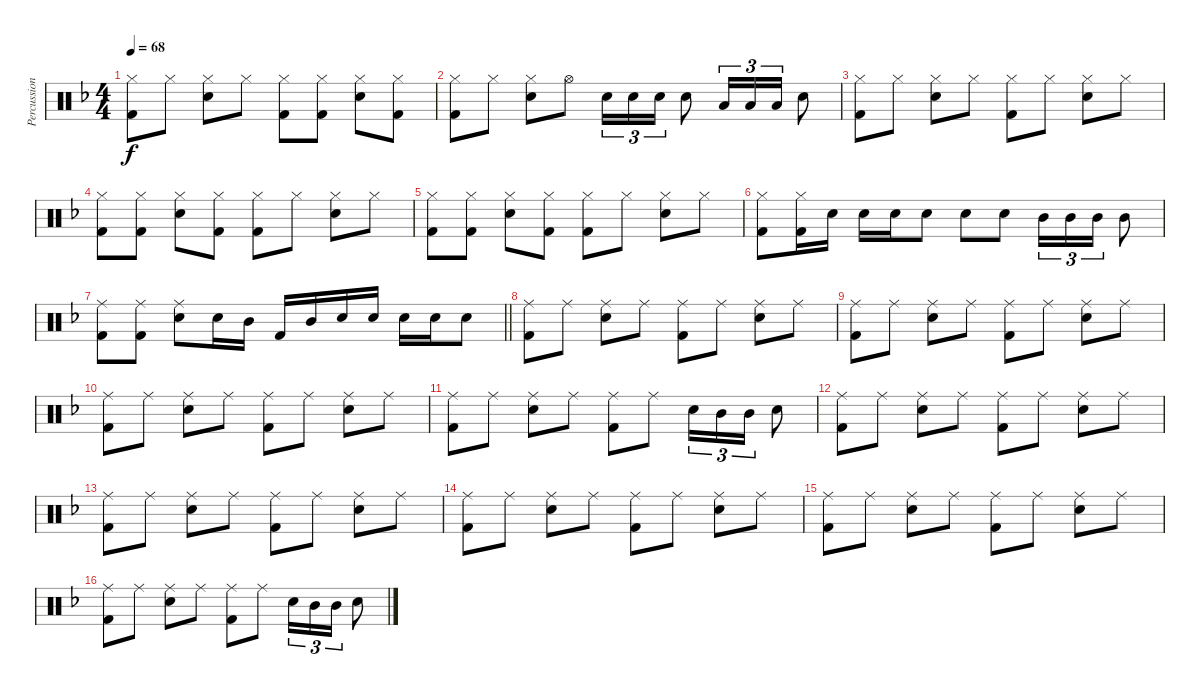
\track ("Percussion" "Percussion") {instrument percussion}
\staff {score}
\articulation defaults
\ts (4 4)
\tempo 68
\clef neutral
\ks f
("Hi-Hat (closed)" "Kick (hit) 2").8{dy f} "Hi-Hat (closed)".8 ("Hi-Hat (closed)" "Snare (hit) 2").8 "Hi-Hat (closed)".8 ("Hi-Hat (closed)" "Kick (hit) 2").8 ("Hi-Hat (closed)" "Kick (hit) 2").8 ("Hi-Hat (closed)" "Snare (hit) 2").8 ("Hi-Hat (closed)" "Kick (hit) 2").8 |
("Hi-Hat (closed)" "Kick (hit) 2").8 "Hi-Hat (closed)".8 ("Hi-Hat (closed)" "Snare (hit) 2").8 "Hi-Hat (open)".8 "Snare (hit) 2".16{tu (3 2)} "Snare (hit) 2".16{tu (3 2)} "Snare (hit) 2".16{tu (3 2)} "Snare (hit) 2".8 "Low Floor Tom (hit)".16{tu (3 2)} "Low Floor Tom (hit)".16{tu (3 2)} "Low Floor Tom (hit)".16{tu (3 2)} "Snare (hit) 2".8 |
("Hi-Hat (closed)" "Kick (hit) 2").8 "Hi-Hat (closed)".8 ("Hi-Hat (closed)" "Snare (hit) 2").8 "Hi-Hat (closed)".8 ("Hi-Hat (closed)" "Kick (hit) 2").8 "Hi-Hat (closed)".8 ("Hi-Hat (closed)" "Snare (hit) 2").8 "Hi-Hat (closed)".8 |
("Hi-Hat (closed)" "Kick (hit) 2").8 ("Hi-Hat (closed)" "Kick (hit) 2").8 ("Hi-Hat (closed)" "Snare (hit) 2").8 ("Hi-Hat (closed)" "Kick (hit) 2").8 ("Hi-Hat (closed)" "Kick (hit) 2").8 "Hi-Hat (closed)".8 ("Hi-Hat (closed)" "Snare (hit) 2").8 "Hi-Hat (closed)".8 |
("Hi-Hat (closed)" "Kick (hit) 2").8 ("Hi-Hat (closed)" "Kick (hit) 2").8 ("Hi-Hat (closed)" "Snare (hit) 2").8 ("Hi-Hat (closed)" "Kick (hit) 2").8 ("Hi-Hat (closed)" "Kick (hit) 2").8 "Hi-Hat (closed)".8 ("Hi-Hat (closed)" "Snare (hit) 2").8 "Hi-Hat (closed)".8 |
("Hi-Hat (closed)" "Kick (hit) 2").8 ("Hi-Hat (closed)" "Kick (hit) 2").16 "Snare (hit) 2".16 "Snare (hit) 2".16 "Snare (hit) 2".16 "Snare (hit) 2".8 "Snare (hit) 2".8 "Snare (hit) 2".8 "Mid Tom (hit)".16{tu (3 2)} "Mid Tom (hit)".16{tu (3 2)} "Mid Tom (hit)".16{tu (3 2)} "Mid Tom (hit)".8 |
\barLineRight lightlight
("Ride (middle)" "Kick (hit) 2").8 ("Ride (middle)" "Kick (hit) 2").8 ("Ride (middle)" "Snare (hit) 2").8 "Snare (hit) 2".16 "Mid Tom (hit)".16 "Kick (hit) 2".16 "Mid Tom (hit)".16 "Snare (hit) 2".16 "Snare (hit) 2".16 "Snare (hit) 2".16 "Snare (hit) 2".16 "Snare (hit) 2".8 |
("Ride (middle)" "Kick (hit) 2").8 "Ride (middle)".8 ("Ride (middle)" "Snare (hit) 2").8 "Ride (middle)".8 ("Ride (middle)" "Kick (hit) 2").8 "Ride (middle)".8 ("Ride (middle)" "Snare (hit) 2").8 "Ride (middle)".8 |
("Ride (middle)" "Kick (hit) 2").8 "Ride (middle)".8 ("Ride (middle)" "Snare (hit) 2").8 "Ride (middle)".8 ("Ride (middle)" "Kick (hit) 2").8 "Ride (middle)".8 ("Ride (middle)" "Snare (hit) 2").8 "Ride (middle)".8 |
("Ride (middle)" "Kick (hit) 2").8 "Ride (middle)".8 ("Ride (middle)" "Snare (hit) 2").8 "Ride (middle)".8 ("Ride (middle)" "Kick (hit) 2").8 "Ride (middle)".8 ("Ride (middle)" "Snare (hit) 2").8 "Ride (middle)".8 |
("Ride (middle)" "Kick (hit) 2").8 "Ride (middle)".8 ("Ride (middle)" "Snare (hit) 2").8 "Ride (middle)".8 ("Ride (middle)" "Kick (hit) 2").8 "Ride (middle)".8 "Snare (hit) 2".16{tu (3 2)} "Mid Tom (hit)".16{tu (3 2)} "Mid Tom (hit)".16{tu (3 2)} "Snare (hit) 2".8 |
("Ride (middle)" "Kick (hit) 2").8 "Ride (middle)".8 ("Ride (middle)" "Snare (hit) 2").8 "Ride (middle)".8 ("Ride (middle)" "Kick (hit) 2").8 "Ride (middle)".8 ("Ride (middle)" "Snare (hit) 2").8 "Ride (middle)".8 |
("Ride (middle)" "Kick (hit) 2").8 "Ride (middle)".8 ("Ride (middle)" "Snare (hit) 2").8 "Ride (middle)".8 ("Ride (middle)" "Kick (hit) 2").8 "Ride (middle)".8 ("Ride (middle)" "Snare (hit) 2").8 "Ride (middle)".8 |
("Ride (middle)" "Kick (hit) 2").8 "Ride (middle)".8 ("Ride (middle)" "Snare (hit) 2").8 "Ride (middle)".8 ("Ride (middle)" "Kick (hit) 2").8 "Ride (middle)".8 ("Ride (middle)" "Snare (hit) 2").8 "Ride (middle)".8 |
("Ride (middle)" "Kick (hit) 2").8 "Ride (middle)".8 ("Ride (middle)" "Snare (hit) 2").8 "Ride (middle)".8 ("Ride (middle)" "Kick (hit) 2").8 "Ride (middle)".8 ("Ride (middle)" "Snare (hit) 2").8 "Ride (middle)".8 |
("Ride (middle)" "Kick (hit) 2").8 "Ride (middle)".8 ("Ride (middle)" "Snare (hit) 2").8 "Ride (middle)".8 ("Ride (middle)" "Kick (hit) 2").8 "Ride (middle)".8 "Snare (hit) 2".16{tu (3 2)} "Mid Tom (hit)".16{tu (3 2)} "Mid Tom (hit)".16{tu (3 2)} "Snare (hit) 2".8
